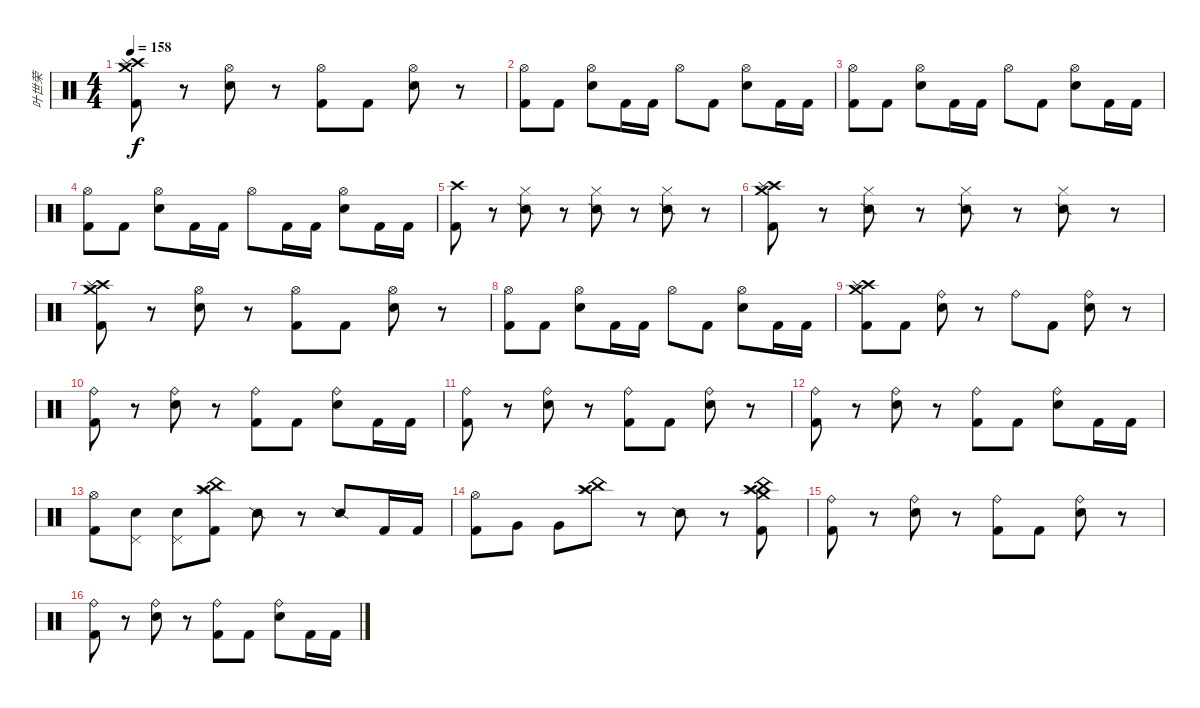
\track ("叶世荣" "叶世荣") {instrument percussion}
\staff {score}
\articulation defaults
\ts (4 4)
\tempo 158
\clef neutral
\ks c
("Crash high (hit)" "Splash (hit)" "Crash medium (hit)" "Kick (hit) 2").8{dy f} r.8 ("Hi-Hat (open)" "Snare (hit) 2").8 r.8 ("Hi-Hat (open)" "Kick (hit) 2").8 "Kick (hit) 2".8 ("Hi-Hat (open)" "Snare (hit) 2").8 r.8 |
("Hi-Hat (open)" "Kick (hit) 2").8 "Kick (hit) 2".8 ("Hi-Hat (open)" "Snare (hit) 2").8 "Kick (hit) 2".16 "Kick (hit) 2".16 "Hi-Hat (open)".8 "Kick (hit) 2".8 ("Hi-Hat (open)" "Snare (hit) 2").8 "Kick (hit) 2".16 "Kick (hit) 2".16 |
("Hi-Hat (open)" "Kick (hit) 2").8 "Kick (hit) 2".8 ("Hi-Hat (open)" "Snare (hit) 2").8 "Kick (hit) 2".16 "Kick (hit) 2".16 "Hi-Hat (open)".8 "Kick (hit) 2".8 ("Hi-Hat (open)" "Snare (hit) 2").8 "Kick (hit) 2".16 "Kick (hit) 2".16 |
("Hi-Hat (open)" "Kick (hit) 2").8 "Kick (hit) 2".8 ("Hi-Hat (open)" "Snare (hit) 2").8 "Kick (hit) 2".16 "Kick (hit) 2".16 "Hi-Hat (open)".8 "Kick (hit) 2".16 "Kick (hit) 2".16 ("Hi-Hat (open)" "Snare (hit) 2").8 "Kick (hit) 2".16 "Kick (hit) 2".16 |
("Crash high (hit)" "Kick (hit) 2").8 r.8 ("Snare (side stick) 2" "Hi-Hat (closed)").8 r.8 ("Snare (side stick) 2" "Hi-Hat (closed)").8 r.8 ("Snare (side stick) 2" "Hi-Hat (closed)").8 r.8 |
("Crash high (hit)" "Splash (hit)" "Crash medium (hit)" "Kick (hit) 2").8 r.8 ("Snare (side stick) 2" "Hi-Hat (closed)").8 r.8 ("Snare (side stick) 2" "Hi-Hat (closed)").8 r.8 ("Snare (side stick) 2" "Hi-Hat (closed)").8 r.8 |
("Crash high (hit)" "Splash (hit)" "Crash medium (hit)" "Kick (hit) 2").8 r.8 ("Hi-Hat (open)" "Snare (hit) 2").8 r.8 ("Hi-Hat (open)" "Kick (hit) 2").8 "Kick (hit) 2".8 ("Hi-Hat (open)" "Snare (hit) 2").8 r.8 |
("Hi-Hat (open)" "Kick (hit) 2").8 "Kick (hit) 2".8 ("Hi-Hat (open)" "Snare (hit) 2").8 "Kick (hit) 2".16 "Kick (hit) 2".16 "Hi-Hat (open)".8 "Kick (hit) 2".8 ("Hi-Hat (open)" "Snare (hit) 2").8 "Kick (hit) 2".16 "Kick (hit) 2".16 |
("Crash high (hit)" "Splash (hit)" "Crash medium (hit)" "Kick (hit) 2").8 "Kick (hit) 2".8 ("Ride (bell)" "Snare (hit) 2").8 r.8 "Ride (bell)".8 "Kick (hit) 2".8 ("Ride (bell)" "Snare (hit) 2").8 r.8 |
("Ride (bell)" "Kick (hit) 2").8 r.8 ("Ride (bell)" "Snare (hit) 2").8 r.8 ("Ride (bell)" "Kick (hit) 2").8 "Kick (hit) 2".8 ("Ride (bell)" "Snare (hit) 2").8 "Kick (hit) 2".16 "Kick (hit) 2".16 |
("Ride (bell)" "Kick (hit) 2").8 r.8 ("Ride (bell)" "Snare (hit) 2").8 r.8 ("Ride (bell)" "Kick (hit) 2").8 "Kick (hit) 2".8 ("Ride (bell)" "Snare (hit) 2").8 r.8 |
("Ride (bell)" "Kick (hit) 2").8 r.8 ("Ride (bell)" "Snare (hit) 2").8 r.8 ("Ride (bell)" "Kick (hit) 2").8 "Kick (hit) 2".8 ("Ride (bell)" "Snare (hit) 2").8 "Kick (hit) 2".16 "Kick (hit) 2".16 |
("Hi-Hat (open)" "Kick (hit) 2").8 ("Snare (hit) 2" "Pedal Hi-Hat (hit)").8 ("Snare (hit) 2" "Pedal Hi-Hat (hit)").8 ("Crash high (hit)" "Splash (hit)" "China (hit)" "Kick (hit) 2").8 "Snare (side stick) 2".8 r.8 "Snare (side stick) 2".8 "Kick (hit) 2".16 "Kick (hit) 2".16 |
("Hi-Hat (open)" "Kick (hit) 2").8 "Very Low Tom (hit)".8 "Very Low Tom (hit)".8 ("Crash high (hit)" "Splash (hit)" "China (hit)").8 r.8 "Snare (side stick) 2".8 r.8 ("Crash high (hit)" "Splash (hit)" "Crash medium (hit)" "China (hit)" "Kick (hit) 2").8 |
("Ride (bell)" "Kick (hit) 2").8 r.8 ("Ride (bell)" "Snare (hit) 2").8 r.8 ("Ride (bell)" "Kick (hit) 2").8 "Kick (hit) 2".8 ("Ride (bell)" "Snare (hit) 2").8 r.8 |
("Ride (bell)" "Kick (hit) 2").8 r.8 ("Ride (bell)" "Snare (hit) 2").8 r.8 ("Ride (bell)" "Kick (hit) 2").8 "Kick (hit) 2".8 ("Ride (bell)" "Snare (hit) 2").8 "Kick (hit) 2".16 "Kick (hit) 2".16
